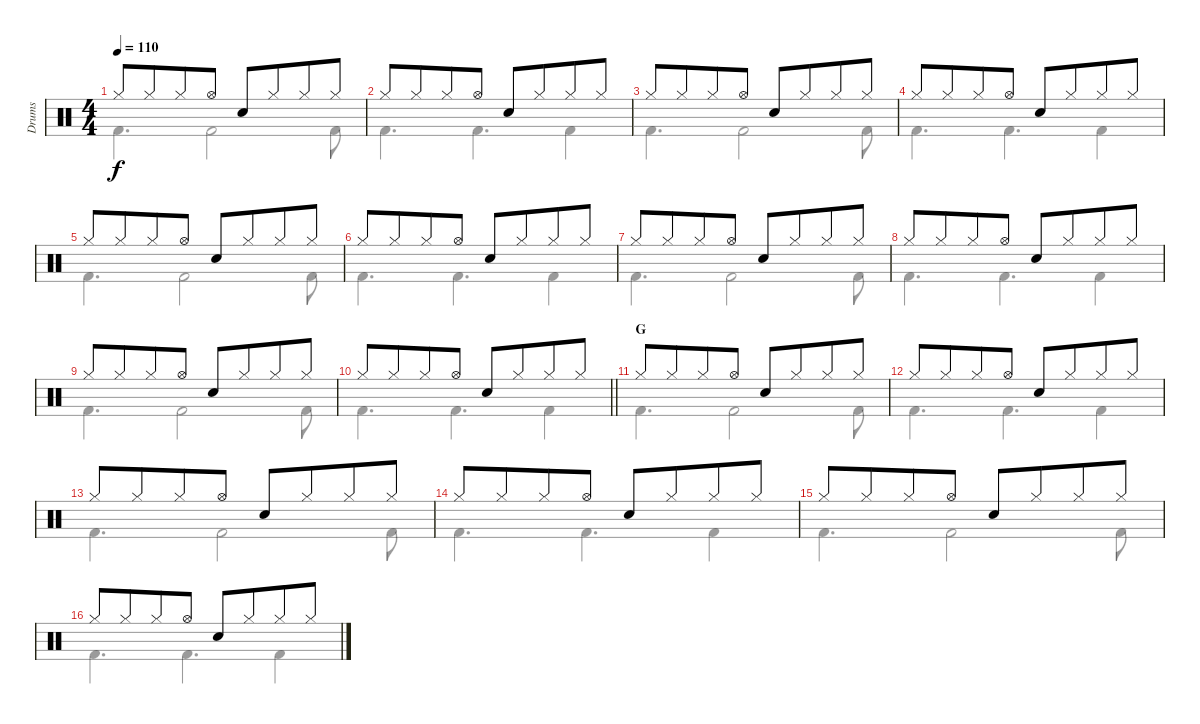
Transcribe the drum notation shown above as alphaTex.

\track ("Drums" "Drums") {instrument percussion}
\staff {score}
\articulation defaults
\voice
\ts (4 4)
\tempo 110
\clef neutral
\ks c "Hi-Hat (closed)".8{dy f} "Hi-Hat (closed)".8{beam merge} "Hi-Hat (closed)".8 "Hi-Hat (open)".8 "Snare (hit) 2".8 "Hi-Hat (closed)".8{beam merge} "Hi-Hat (closed)".8 "Hi-Hat (closed)".8
|
"Hi-Hat (closed)".8 "Hi-Hat (closed)".8{beam merge} "Hi-Hat (closed)".8 "Hi-Hat (open)".8 "Snare (hit) 2".8 "Hi-Hat (closed)".8{beam merge} "Hi-Hat (closed)".8 "Hi-Hat (closed)".8 |
"Hi-Hat (closed)".8 "Hi-Hat (closed)".8{beam merge} "Hi-Hat (closed)".8 "Hi-Hat (open)".8 "Snare (hit) 2".8 "Hi-Hat (closed)".8{beam merge} "Hi-Hat (closed)".8 "Hi-Hat (closed)".8 |
"Hi-Hat (closed)".8 "Hi-Hat (closed)".8{beam merge} "Hi-Hat (closed)".8 "Hi-Hat (open)".8 "Snare (hit) 2".8 "Hi-Hat (closed)".8{beam merge} "Hi-Hat (closed)".8 "Hi-Hat (closed)".8 |
"Hi-Hat (closed)".8 "Hi-Hat (closed)".8{beam merge} "Hi-Hat (closed)".8 "Hi-Hat (open)".8 "Snare (hit) 2".8 "Hi-Hat (closed)".8{beam merge} "Hi-Hat (closed)".8 "Hi-Hat (closed)".8 |
"Hi-Hat (closed)".8 "Hi-Hat (closed)".8{beam merge} "Hi-Hat (closed)".8 "Hi-Hat (open)".8 "Snare (hit) 2".8 "Hi-Hat (closed)".8{beam merge} "Hi-Hat (closed)".8 "Hi-Hat (closed)".8 |
"Hi-Hat (closed)".8 "Hi-Hat (closed)".8{beam merge} "Hi-Hat (closed)".8 "Hi-Hat (open)".8 "Snare (hit) 2".8 "Hi-Hat (closed)".8{beam merge} "Hi-Hat (closed)".8 "Hi-Hat (closed)".8 |
"Hi-Hat (closed)".8 "Hi-Hat (closed)".8{beam merge} "Hi-Hat (closed)".8 "Hi-Hat (open)".8 "Snare (hit) 2".8 "Hi-Hat (closed)".8{beam merge} "Hi-Hat (closed)".8 "Hi-Hat (closed)".8 |
"Hi-Hat (closed)".8 "Hi-Hat (closed)".8{beam merge} "Hi-Hat (closed)".8 "Hi-Hat (open)".8 "Snare (hit) 2".8 "Hi-Hat (closed)".8{beam merge} "Hi-Hat (closed)".8 "Hi-Hat (closed)".8 |
\barLineRight lightlight "Hi-Hat (closed)".8 "Hi-Hat (closed)".8{beam merge} "Hi-Hat (closed)".8 "Hi-Hat (open)".8 "Snare (hit) 2".8 "Hi-Hat (closed)".8{beam merge} "Hi-Hat (closed)".8 "Hi-Hat (closed)".8
|
\section ("" "G")
"Hi-Hat (closed)".8 "Hi-Hat (closed)".8{beam merge} "Hi-Hat (closed)".8 "Hi-Hat (open)".8 "Snare (hit) 2".8 "Hi-Hat (closed)".8{beam merge} "Hi-Hat (closed)".8 "Hi-Hat (closed)".8 |
"Hi-Hat (closed)".8 "Hi-Hat (closed)".8{beam merge} "Hi-Hat (closed)".8 "Hi-Hat (open)".8 "Snare (hit) 2".8 "Hi-Hat (closed)".8{beam merge} "Hi-Hat (closed)".8 "Hi-Hat (closed)".8 |
"Hi-Hat (closed)".8 "Hi-Hat (closed)".8{beam merge} "Hi-Hat (closed)".8 "Hi-Hat (open)".8 "Snare (hit) 2".8 "Hi-Hat (closed)".8{beam merge} "Hi-Hat (closed)".8 "Hi-Hat (closed)".8 |
"Hi-Hat (closed)".8 "Hi-Hat (closed)".8{beam merge} "Hi-Hat (closed)".8 "Hi-Hat (open)".8 "Snare (hit) 2".8 "Hi-Hat (closed)".8{beam merge} "Hi-Hat (closed)".8 "Hi-Hat (closed)".8 |
"Hi-Hat (closed)".8 "Hi-Hat (closed)".8{beam merge} "Hi-Hat (closed)".8 "Hi-Hat (open)".8 "Snare (hit) 2".8 "Hi-Hat (closed)".8{beam merge} "Hi-Hat (closed)".8 "Hi-Hat (closed)".8 |
"Hi-Hat (closed)".8 "Hi-Hat (closed)".8{beam merge} "Hi-Hat (closed)".8 "Hi-Hat (open)".8 "Snare (hit) 2".8 "Hi-Hat (closed)".8{beam merge} "Hi-Hat (closed)".8 "Hi-Hat (closed)".8
\voice
\clef neutral
\ottava regular
\simile none
\ks c "Kick (hit) 2".4{d dy f} "Kick (hit) 2".2 "Kick (hit) 2".8
|
"Kick (hit) 2".4{d} "Kick (hit) 2".4{d} "Kick (hit) 2".4 |
"Kick (hit) 2".4{d} "Kick (hit) 2".2 "Kick (hit) 2".8 |
"Kick (hit) 2".4{d} "Kick (hit) 2".4{d} "Kick (hit) 2".4 |
"Kick (hit) 2".4{d} "Kick (hit) 2".2 "Kick (hit) 2".8 |
"Kick (hit) 2".4{d} "Kick (hit) 2".4{d} "Kick (hit) 2".4 |
"Kick (hit) 2".4{d} "Kick (hit) 2".2 "Kick (hit) 2".8 |
"Kick (hit) 2".4{d} "Kick (hit) 2".4{d} "Kick (hit) 2".4 |
"Kick (hit) 2".4{d} "Kick (hit) 2".2 "Kick (hit) 2".8 |
\barLineRight lightlight "Kick (hit) 2".4{d} "Kick (hit) 2".4{d} "Kick (hit) 2".4
|
"Kick (hit) 2".4{d} "Kick (hit) 2".2 "Kick (hit) 2".8 |
"Kick (hit) 2".4{d} "Kick (hit) 2".4{d} "Kick (hit) 2".4 |
"Kick (hit) 2".4{d} "Kick (hit) 2".2 "Kick (hit) 2".8 |
"Kick (hit) 2".4{d} "Kick (hit) 2".4{d} "Kick (hit) 2".4 |
"Kick (hit) 2".4{d} "Kick (hit) 2".2 "Kick (hit) 2".8 |
"Kick (hit) 2".4{d} "Kick (hit) 2".4{d} "Kick (hit) 2".4
